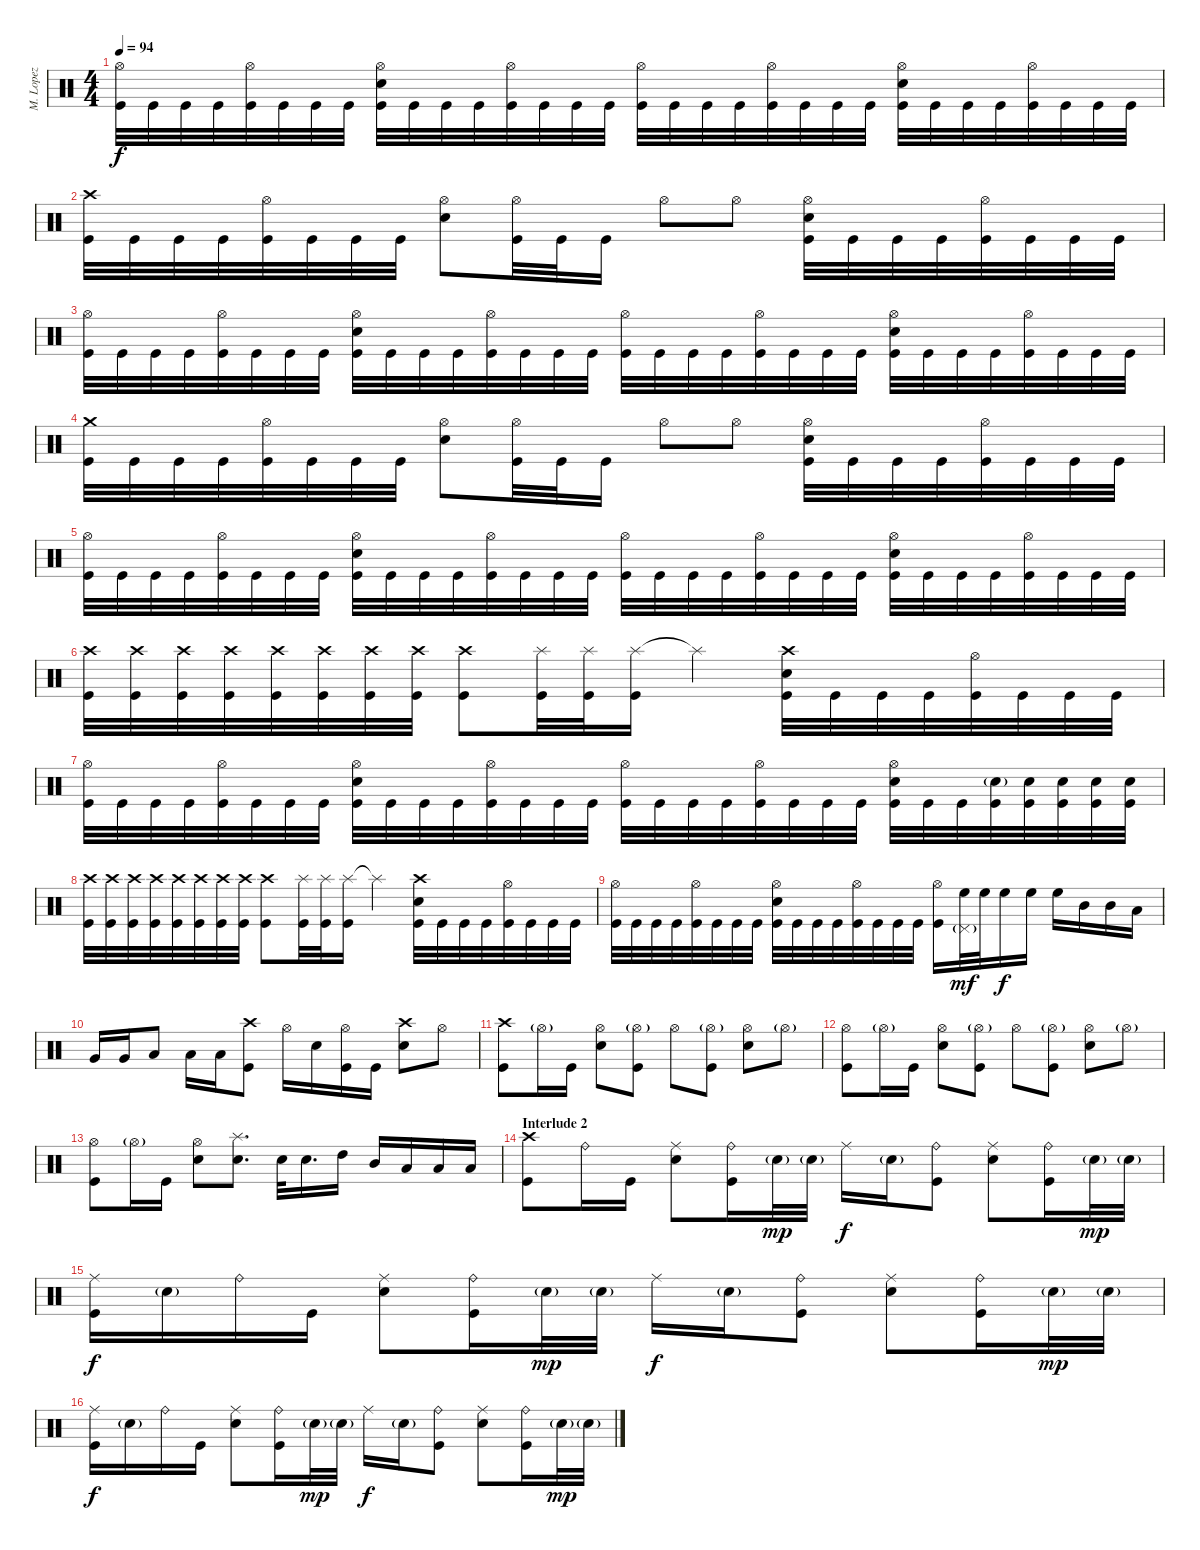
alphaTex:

\track ("M. Lopez" "M. Lopez") {instrument percussion}
\staff {score}
\articulation defaults
\ts (4 4)
\tempo 94
\clef neutral
\ks c
("Hi-Hat (open)" "Kick (hit)").32{dy f} "Kick (hit)".32 "Kick (hit)".32 "Kick (hit)".32 ("Hi-Hat (open)" "Kick (hit)").32 "Kick (hit)".32 "Kick (hit)".32 "Kick (hit)".32 ("Hi-Hat (open)" "Electric Snare (hit)" "Kick (hit)").32 "Kick (hit)".32 "Kick (hit)".32 "Kick (hit)".32 ("Hi-Hat (open)" "Kick (hit)").32 "Kick (hit)".32 "Kick (hit)".32 "Kick (hit)".32 ("Hi-Hat (open)" "Kick (hit)").32 "Kick (hit)".32 "Kick (hit)".32 "Kick (hit)".32 ("Hi-Hat (open)" "Kick (hit)").32 "Kick (hit)".32 "Kick (hit)".32 "Kick (hit)".32 ("Hi-Hat (open)" "Electric Snare (hit)" "Kick (hit)").32 "Kick (hit)".32 "Kick (hit)".32 "Kick (hit)".32 ("Hi-Hat (open)" "Kick (hit)").32 "Kick (hit)".32 "Kick (hit)".32 "Kick (hit)".32 |
("Crash high (hit)" "Kick (hit)").32 "Kick (hit)".32 "Kick (hit)".32 "Kick (hit)".32 ("Hi-Hat (open)" "Kick (hit)").32 "Kick (hit)".32 "Kick (hit)".32 "Kick (hit)".32 ("Hi-Hat (open)" "Electric Snare (hit)").8 ("Hi-Hat (open)" "Kick (hit)").32 "Kick (hit)".32 "Kick (hit)".16 "Hi-Hat (open)".8 "Hi-Hat (open)".8 ("Hi-Hat (open)" "Electric Snare (hit)" "Kick (hit)").32 "Kick (hit)".32 "Kick (hit)".32 "Kick (hit)".32 ("Hi-Hat (open)" "Kick (hit)").32 "Kick (hit)".32 "Kick (hit)".32 "Kick (hit)".32 |
("Hi-Hat (open)" "Kick (hit)").32 "Kick (hit)".32 "Kick (hit)".32 "Kick (hit)".32 ("Hi-Hat (open)" "Kick (hit)").32 "Kick (hit)".32 "Kick (hit)".32 "Kick (hit)".32 ("Hi-Hat (open)" "Electric Snare (hit)" "Kick (hit)").32 "Kick (hit)".32 "Kick (hit)".32 "Kick (hit)".32 ("Hi-Hat (open)" "Kick (hit)").32 "Kick (hit)".32 "Kick (hit)".32 "Kick (hit)".32 ("Hi-Hat (open)" "Kick (hit)").32 "Kick (hit)".32 "Kick (hit)".32 "Kick (hit)".32 ("Hi-Hat (open)" "Kick (hit)").32 "Kick (hit)".32 "Kick (hit)".32 "Kick (hit)".32 ("Hi-Hat (open)" "Electric Snare (hit)" "Kick (hit)").32 "Kick (hit)".32 "Kick (hit)".32 "Kick (hit)".32 ("Hi-Hat (open)" "Kick (hit)").32 "Kick (hit)".32 "Kick (hit)".32 "Kick (hit)".32 |
("Crash medium (hit)" "Kick (hit)").32 "Kick (hit)".32 "Kick (hit)".32 "Kick (hit)".32 ("Hi-Hat (open)" "Kick (hit)").32 "Kick (hit)".32 "Kick (hit)".32 "Kick (hit)".32 ("Hi-Hat (open)" "Electric Snare (hit)").8 ("Hi-Hat (open)" "Kick (hit)").32 "Kick (hit)".32 "Kick (hit)".16 "Hi-Hat (open)".8 "Hi-Hat (open)".8 ("Hi-Hat (open)" "Electric Snare (hit)" "Kick (hit)").32 "Kick (hit)".32 "Kick (hit)".32 "Kick (hit)".32 ("Hi-Hat (open)" "Kick (hit)").32 "Kick (hit)".32 "Kick (hit)".32 "Kick (hit)".32 |
("Hi-Hat (open)" "Kick (hit)").32 "Kick (hit)".32 "Kick (hit)".32 "Kick (hit)".32 ("Hi-Hat (open)" "Kick (hit)").32 "Kick (hit)".32 "Kick (hit)".32 "Kick (hit)".32 ("Hi-Hat (open)" "Electric Snare (hit)" "Kick (hit)").32 "Kick (hit)".32 "Kick (hit)".32 "Kick (hit)".32 ("Hi-Hat (open)" "Kick (hit)").32 "Kick (hit)".32 "Kick (hit)".32 "Kick (hit)".32 ("Hi-Hat (open)" "Kick (hit)").32 "Kick (hit)".32 "Kick (hit)".32 "Kick (hit)".32 ("Hi-Hat (open)" "Kick (hit)").32 "Kick (hit)".32 "Kick (hit)".32 "Kick (hit)".32 ("Hi-Hat (open)" "Electric Snare (hit)" "Kick (hit)").32 "Kick (hit)".32 "Kick (hit)".32 "Kick (hit)".32 ("Hi-Hat (open)" "Kick (hit)").32 "Kick (hit)".32 "Kick (hit)".32 "Kick (hit)".32 |
("Crash high (hit)" "Kick (hit)").32 ("Crash high (hit)" "Kick (hit)").32 ("Crash high (hit)" "Kick (hit)").32 ("Crash high (hit)" "Kick (hit)").32 ("Crash high (hit)" "Kick (hit)").32 ("Crash high (hit)" "Kick (hit)").32 ("Crash high (hit)" "Kick (hit)").32 ("Crash high (hit)" "Kick (hit)").32 ("Crash high (hit)" "Kick (hit)").8 ("Splash (hit)" "Kick (hit)").32 ("Splash (hit)" "Kick (hit)").32 ("Splash (hit)" "Kick (hit)").16 "Splash (hit)"{t}.4 ("Crash high (hit)" "Electric Snare (hit)" "Kick (hit)").32 "Kick (hit)".32 "Kick (hit)".32 "Kick (hit)".32 ("Hi-Hat (open)" "Kick (hit)").32 "Kick (hit)".32 "Kick (hit)".32 "Kick (hit)".32 |
("Hi-Hat (open)" "Kick (hit)").32 "Kick (hit)".32 "Kick (hit)".32 "Kick (hit)".32 ("Hi-Hat (open)" "Kick (hit)").32 "Kick (hit)".32 "Kick (hit)".32 "Kick (hit)".32 ("Hi-Hat (open)" "Electric Snare (hit)" "Kick (hit)").32 "Kick (hit)".32 "Kick (hit)".32 "Kick (hit)".32 ("Hi-Hat (open)" "Kick (hit)").32 "Kick (hit)".32 "Kick (hit)".32 "Kick (hit)".32 ("Hi-Hat (open)" "Kick (hit)").32 "Kick (hit)".32 "Kick (hit)".32 "Kick (hit)".32 ("Hi-Hat (open)" "Kick (hit)").32 "Kick (hit)".32 "Kick (hit)".32 "Kick (hit)".32 ("Hi-Hat (open)" "Electric Snare (hit)" "Kick (hit)").32 "Kick (hit)".32 "Kick (hit)".32 ("Electric Snare (hit)"{g} "Kick (hit)").32 ("Electric Snare (hit)" "Kick (hit)").32 ("Electric Snare (hit)" "Kick (hit)").32 ("Electric Snare (hit)" "Kick (hit)").32 ("Electric Snare (hit)" "Kick (hit)").32 |
("Crash high (hit)" "Kick (hit)").32 ("Crash high (hit)" "Kick (hit)").32 ("Crash high (hit)" "Kick (hit)").32 ("Crash high (hit)" "Kick (hit)").32 ("Crash high (hit)" "Kick (hit)").32 ("Crash high (hit)" "Kick (hit)").32 ("Crash high (hit)" "Kick (hit)").32 ("Crash high (hit)" "Kick (hit)").32 ("Crash high (hit)" "Kick (hit)").8 ("Splash (hit)" "Kick (hit)").32 ("Splash (hit)" "Kick (hit)").32 ("Splash (hit)" "Kick (hit)").16 "Splash (hit)"{t}.4 ("Crash high (hit)" "Electric Snare (hit)" "Kick (hit)").32 "Kick (hit)".32 "Kick (hit)".32 "Kick (hit)".32 ("Hi-Hat (open)" "Kick (hit)").32 "Kick (hit)".32 "Kick (hit)".32 "Kick (hit)".32 |
("Hi-Hat (open)" "Kick (hit)").32 "Kick (hit)".32 "Kick (hit)".32 "Kick (hit)".32 ("Hi-Hat (open)" "Kick (hit)").32 "Kick (hit)".32 "Kick (hit)".32 "Kick (hit)".32 ("Hi-Hat (open)" "Electric Snare (hit)" "Kick (hit)").32 "Kick (hit)".32 "Kick (hit)".32 "Kick (hit)".32 ("Hi-Hat (open)" "Kick (hit)").32 "Kick (hit)".32 "Kick (hit)".32 "Kick (hit)".32 ("Hi-Hat (open)" "Kick (hit)").16 ("Pedal Hi-Hat (hit)"{g} "High Floor Tom (hit)").32{dy mf} "High Floor Tom (hit)".32 "High Floor Tom (hit)".16{dy f} "High Floor Tom (hit)".16 "High Floor Tom (hit)".16 "Mid Tom (hit)".16 "Mid Tom (hit)".16 "Low Tom (hit)".16 |
"Very Low Tom (hit)".16 "Very Low Tom (hit)".16 "Low Floor Tom (hit)".8 "Low Floor Tom (hit)".16 "Low Floor Tom (hit)".16 ("Crash high (hit)" "Kick (hit)").8 "Hi-Hat (open)".16 "Electric Snare (hit)".16 ("Hi-Hat (open)" "Kick (hit)").16 "Kick (hit)".16 ("Crash high (hit)" "Electric Snare (hit)").8 "Hi-Hat (open)".8 |
("Crash high (hit)" "Kick (hit)").8 "Hi-Hat (open)"{g}.16 "Kick (hit)".16 ("Hi-Hat (open)" "Electric Snare (hit)").8 ("Hi-Hat (open)"{g} "Kick (hit)").8 "Hi-Hat (open)".8 ("Hi-Hat (open)"{g} "Kick (hit)").8 ("Hi-Hat (open)" "Electric Snare (hit)").8 "Hi-Hat (open)"{g}.8 |
("Hi-Hat (open)" "Kick (hit)").8 "Hi-Hat (open)"{g}.16 "Kick (hit)".16 ("Hi-Hat (open)" "Electric Snare (hit)").8 ("Hi-Hat (open)"{g} "Kick (hit)").8 "Hi-Hat (open)".8 ("Hi-Hat (open)"{g} "Kick (hit)").8 ("Hi-Hat (open)" "Electric Snare (hit)").8 "Hi-Hat (open)"{g}.8 |
("Hi-Hat (open)" "Kick (hit)").8 "Hi-Hat (open)"{g}.16 "Kick (hit)".16 ("Hi-Hat (open)" "Electric Snare (hit)").8 ("Splash (hit)" "Electric Snare (hit)").8{d} "Electric Snare (hit)".32 "Electric Snare (hit)".16{d} "High Tom (hit)".16 "Mid Tom (hit)".16 "Low Tom (hit)".16 "Low Tom (hit)".16 "Low Tom (hit)".16 |
\section ("" "Interlude 2")
("Crash high (hit)" "Kick (hit)").8 "Ride (bell)".16 "Kick (hit)".16 ("Ride (middle)" "Electric Snare (hit)").8 ("Ride (bell)" "Kick (hit)").16 "Electric Snare (hit)"{g}.32{dy mp} "Electric Snare (hit)"{g}.32 "Ride (middle)".16{dy f} "Electric Snare (hit)"{g}.16 ("Ride (bell)" "Kick (hit)").8 ("Ride (middle)" "Electric Snare (hit)").8 ("Ride (bell)" "Kick (hit)").16 "Electric Snare (hit)"{g}.32{dy mp} "Electric Snare (hit)"{g}.32 |
("Ride (middle)" "Kick (hit)").16{dy f} "Electric Snare (hit)"{g}.16 "Ride (bell)".16 "Kick (hit)".16 ("Ride (middle)" "Electric Snare (hit)").8 ("Ride (bell)" "Kick (hit)").16 "Electric Snare (hit)"{g}.32{dy mp} "Electric Snare (hit)"{g}.32 "Ride (middle)".16{dy f} "Electric Snare (hit)"{g}.16 ("Ride (bell)" "Kick (hit)").8 ("Ride (middle)" "Electric Snare (hit)").8 ("Ride (bell)" "Kick (hit)").16 "Electric Snare (hit)"{g}.32{dy mp} "Electric Snare (hit)"{g}.32 |
("Ride (middle)" "Kick (hit)").16{dy f} "Electric Snare (hit)"{g}.16 "Ride (bell)".16 "Kick (hit)".16 ("Ride (middle)" "Electric Snare (hit)").8 ("Ride (bell)" "Kick (hit)").16 "Electric Snare (hit)"{g}.32{dy mp} "Electric Snare (hit)"{g}.32 "Ride (middle)".16{dy f} "Electric Snare (hit)"{g}.16 ("Ride (bell)" "Kick (hit)").8 ("Ride (middle)" "Electric Snare (hit)").8 ("Ride (bell)" "Kick (hit)").16 "Electric Snare (hit)"{g}.32{dy mp} "Electric Snare (hit)"{g}.32
